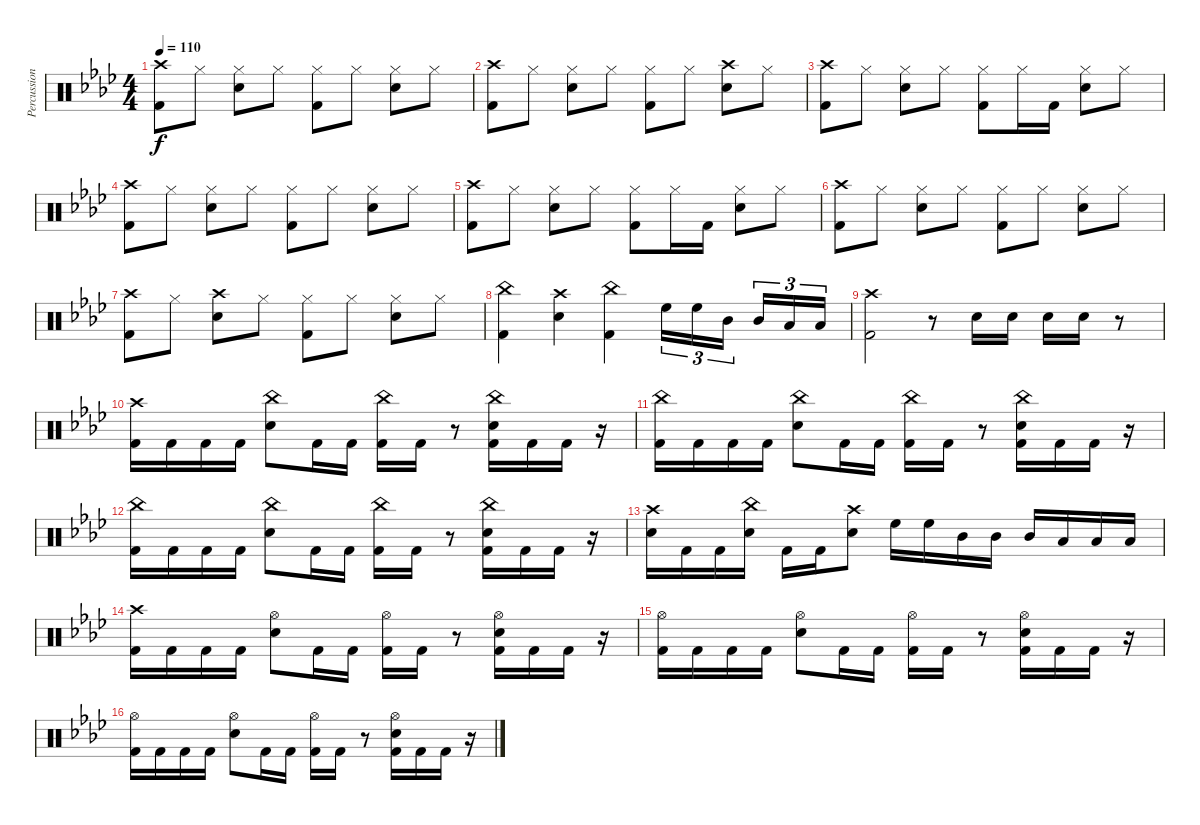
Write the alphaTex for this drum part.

\track ("Percussions" "Percussion") {instrument percussion}
\staff {score}
\articulation defaults
\ts (4 4)
\tempo 110
\clef neutral
\ks fminor
("Crash high (hit)" "Kick (hit) 2").8{dy f} "Hi-Hat (closed)".8 ("Hi-Hat (closed)" "Snare (hit) 2").8 "Hi-Hat (closed)".8 ("Hi-Hat (closed)" "Kick (hit) 2").8 "Hi-Hat (closed)".8 ("Hi-Hat (closed)" "Snare (hit) 2").8 "Hi-Hat (closed)".8 |
("Crash high (hit)" "Kick (hit) 2").8 "Hi-Hat (closed)".8 ("Hi-Hat (closed)" "Snare (hit) 2").8 "Hi-Hat (closed)".8 ("Hi-Hat (closed)" "Kick (hit) 2").8 "Hi-Hat (closed)".8 ("Crash high (hit)" "Snare (hit) 2").8 "Hi-Hat (closed)".8 |
("Crash high (hit)" "Kick (hit) 2").8 "Hi-Hat (closed)".8 ("Hi-Hat (closed)" "Snare (hit) 2").8 "Hi-Hat (closed)".8 ("Hi-Hat (closed)" "Kick (hit) 2").8 "Hi-Hat (closed)".16 "Kick (hit) 2".16 ("Hi-Hat (closed)" "Snare (hit) 2").8 "Hi-Hat (closed)".8 |
("Crash high (hit)" "Kick (hit) 2").8 "Hi-Hat (closed)".8 ("Hi-Hat (closed)" "Snare (hit) 2").8 "Hi-Hat (closed)".8 ("Hi-Hat (closed)" "Kick (hit) 2").8 "Hi-Hat (closed)".8 ("Hi-Hat (closed)" "Snare (hit) 2").8 "Hi-Hat (closed)".8 |
("Crash high (hit)" "Kick (hit) 2").8 "Hi-Hat (closed)".8 ("Hi-Hat (closed)" "Snare (hit) 2").8 "Hi-Hat (closed)".8 ("Hi-Hat (closed)" "Kick (hit) 2").8 "Hi-Hat (closed)".16 "Kick (hit) 2".16 ("Hi-Hat (closed)" "Snare (hit) 2").8 "Hi-Hat (closed)".8 |
("Crash high (hit)" "Kick (hit) 2").8 "Hi-Hat (closed)".8 ("Hi-Hat (closed)" "Snare (hit) 2").8 "Hi-Hat (closed)".8 ("Hi-Hat (closed)" "Kick (hit) 2").8 "Hi-Hat (closed)".8 ("Hi-Hat (closed)" "Snare (hit) 2").8 "Hi-Hat (closed)".8 |
("Crash high (hit)" "Kick (hit) 2").8 "Hi-Hat (closed)".8 ("Crash high (hit)" "Snare (hit) 2").8 "Hi-Hat (closed)".8 ("Hi-Hat (closed)" "Kick (hit) 2").8 "Hi-Hat (closed)".8 ("Hi-Hat (closed)" "Snare (hit) 2").8 "Hi-Hat (closed)".8 |
("China (hit)" "Kick (hit) 2").4 ("Crash high (hit)" "Snare (hit) 2").4 ("China (hit)" "Kick (hit) 2").4 "High Floor Tom (hit)".16{tu (3 2)} "High Floor Tom (hit)".16{tu (3 2)} "Mid Tom (hit)".16{tu (3 2)} "Mid Tom (hit)".16{tu (3 2)} "Low Tom (hit)".16{tu (3 2)} "Low Tom (hit)".16{tu (3 2)} |
("Crash high (hit)" "Kick (hit) 2").2 r.8 "Snare (hit) 2".16 "Snare (hit) 2".16 "Snare (hit) 2".16 "Snare (hit) 2".16 r.8 |
("Crash high (hit)" "Kick (hit) 2").16 "Kick (hit) 2".16 "Kick (hit) 2".16 "Kick (hit) 2".16 ("China (hit)" "Snare (hit) 2").8 "Kick (hit) 2".16 "Kick (hit) 2".16 ("China (hit)" "Kick (hit) 2").16 "Kick (hit) 2".16 r.8 ("China (hit)" "Snare (hit) 2" "Kick (hit) 2").16 "Kick (hit) 2".16 "Kick (hit) 2".16 r.16 |
("China (hit)" "Kick (hit) 2").16 "Kick (hit) 2".16 "Kick (hit) 2".16 "Kick (hit) 2".16 ("China (hit)" "Snare (hit) 2").8 "Kick (hit) 2".16 "Kick (hit) 2".16 ("China (hit)" "Kick (hit) 2").16 "Kick (hit) 2".16 r.8 ("China (hit)" "Snare (hit) 2" "Kick (hit) 2").16 "Kick (hit) 2".16 "Kick (hit) 2".16 r.16 |
("China (hit)" "Kick (hit) 2").16 "Kick (hit) 2".16 "Kick (hit) 2".16 "Kick (hit) 2".16 ("China (hit)" "Snare (hit) 2").8 "Kick (hit) 2".16 "Kick (hit) 2".16 ("China (hit)" "Kick (hit) 2").16 "Kick (hit) 2".16 r.8 ("China (hit)" "Snare (hit) 2" "Kick (hit) 2").16 "Kick (hit) 2".16 "Kick (hit) 2".16 r.16 |
("Crash high (hit)" "Snare (hit) 2").16 "Kick (hit) 2".16 "Kick (hit) 2".16 ("China (hit)" "Snare (hit) 2").16 "Kick (hit) 2".16 "Kick (hit) 2".16 ("Crash high (hit)" "Snare (hit) 2").8 "High Floor Tom (hit)".16 "High Floor Tom (hit)".16 "Mid Tom (hit)".16 "Mid Tom (hit)".16 "Mid Tom (hit)".16 "Low Tom (hit)".16 "Low Tom (hit)".16 "Low Tom (hit)".16 |
("Crash high (hit)" "Kick (hit) 2").16 "Kick (hit) 2".16 "Kick (hit) 2".16 "Kick (hit) 2".16 ("Hi-Hat (open)" "Snare (hit) 2").8 "Kick (hit) 2".16 "Kick (hit) 2".16 ("Hi-Hat (open)" "Kick (hit) 2").16 "Kick (hit) 2".16 r.8 ("Hi-Hat (open)" "Snare (hit) 2" "Kick (hit) 2").16 "Kick (hit) 2".16 "Kick (hit) 2".16 r.16 |
("Hi-Hat (open)" "Kick (hit) 2").16 "Kick (hit) 2".16 "Kick (hit) 2".16 "Kick (hit) 2".16 ("Hi-Hat (open)" "Snare (hit) 2").8 "Kick (hit) 2".16 "Kick (hit) 2".16 ("Hi-Hat (open)" "Kick (hit) 2").16 "Kick (hit) 2".16 r.8 ("Hi-Hat (open)" "Snare (hit) 2" "Kick (hit) 2").16 "Kick (hit) 2".16 "Kick (hit) 2".16 r.16 |
("Hi-Hat (open)" "Kick (hit) 2").16 "Kick (hit) 2".16 "Kick (hit) 2".16 "Kick (hit) 2".16 ("Hi-Hat (open)" "Snare (hit) 2").8 "Kick (hit) 2".16 "Kick (hit) 2".16 ("Hi-Hat (open)" "Kick (hit) 2").16 "Kick (hit) 2".16 r.8 ("Hi-Hat (open)" "Snare (hit) 2" "Kick (hit) 2").16 "Kick (hit) 2".16 "Kick (hit) 2".16 r.16
